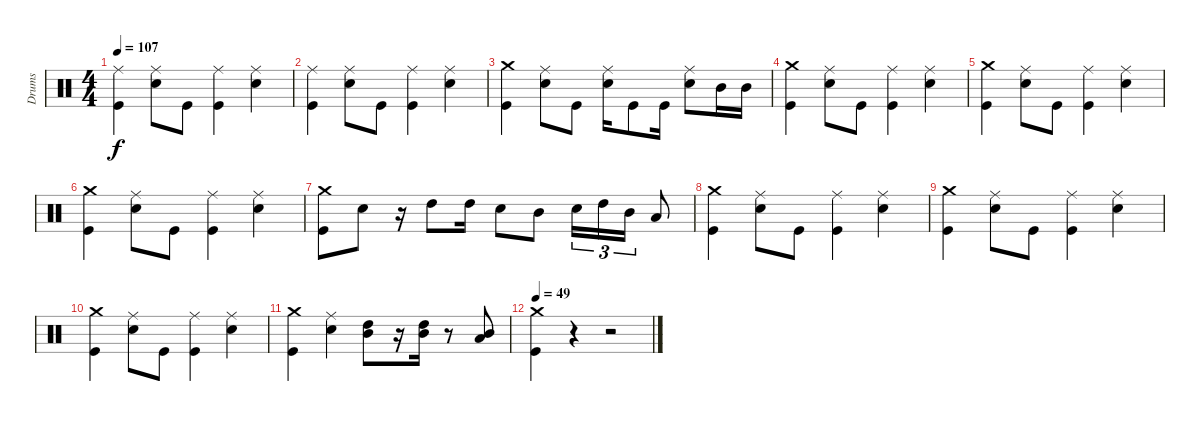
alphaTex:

\track ("Drums" "Drums") {instrument percussion}
\staff {score}
\articulation defaults
\ts (4 4)
\tempo 107
\clef neutral
\ks c
("Ride (middle)" "Kick (hit)").4{dy f} ("Ride (middle)" "Snare (hit) 2").8 "Kick (hit)".8 ("Ride (middle)" "Kick (hit)").4 ("Ride (middle)" "Snare (hit) 2").4 |
("Ride (middle)" "Kick (hit)").4 ("Ride (middle)" "Snare (hit) 2").8 "Kick (hit)".8 ("Ride (middle)" "Kick (hit)").4 ("Ride (middle)" "Snare (hit) 2").4 |
("Crash medium (hit)" "Kick (hit)").4 ("Ride (middle)" "Snare (hit) 2").8 "Kick (hit)".8 ("Ride (middle)" "Snare (hit) 2").16 "Kick (hit)".8 "Kick (hit)".16 ("Ride (middle)" "Snare (hit) 2").8 "Mid Tom (hit)".16 "Mid Tom (hit)".16 |
("Crash medium (hit)" "Kick (hit)").4 ("Ride (middle)" "Snare (hit) 2").8 "Kick (hit)".8 ("Ride (middle)" "Kick (hit)").4 ("Ride (middle)" "Snare (hit) 2").4 |
("Crash medium (hit)" "Kick (hit)").4 ("Ride (middle)" "Snare (hit) 2").8 "Kick (hit)".8 ("Ride (middle)" "Kick (hit)").4 ("Ride (middle)" "Snare (hit) 2").4 |
("Crash medium (hit)" "Kick (hit)").4 ("Ride (middle)" "Snare (hit) 2").8 "Kick (hit)".8 ("Ride (middle)" "Kick (hit)").4 ("Ride (middle)" "Snare (hit) 2").4 |
("Crash medium (hit)" "Kick (hit)").8 "Snare (hit) 2".8 r.16 "High Tom (hit)".8 "High Tom (hit)".16 "Snare (hit) 2".8 "Mid Tom (hit)".8 "Snare (hit) 2".16{tu (3 2)} "High Tom (hit)".16{tu (3 2)} "Mid Tom (hit)".16{tu (3 2)} "Low Tom (hit)".8 |
("Crash medium (hit)" "Kick (hit)").4 ("Ride (middle)" "Snare (hit) 2").8 "Kick (hit)".8 ("Ride (middle)" "Kick (hit)").4 ("Ride (middle)" "Snare (hit) 2").4 |
("Crash medium (hit)" "Kick (hit)").4 ("Ride (middle)" "Snare (hit) 2").8 "Kick (hit)".8 ("Ride (middle)" "Kick (hit)").4 ("Ride (middle)" "Snare (hit) 2").4 |
("Crash medium (hit)" "Kick (hit)").4 ("Ride (middle)" "Snare (hit) 2").8 "Kick (hit)".8 ("Ride (middle)" "Kick (hit)").4 ("Ride (middle)" "Snare (hit) 2").4 |
("Crash medium (hit)" "Kick (hit)").4 ("Ride (middle)" "Snare (hit) 2").4 ("High Tom (hit)" "Mid Tom (hit)").8 r.16 ("High Tom (hit)" "Mid Tom (hit)").16 r.8 ("Mid Tom (hit)" "Low Tom (hit)").8 |
\tempo 49
("Crash medium (hit)" "Kick (hit)").4 r.4 r.2
